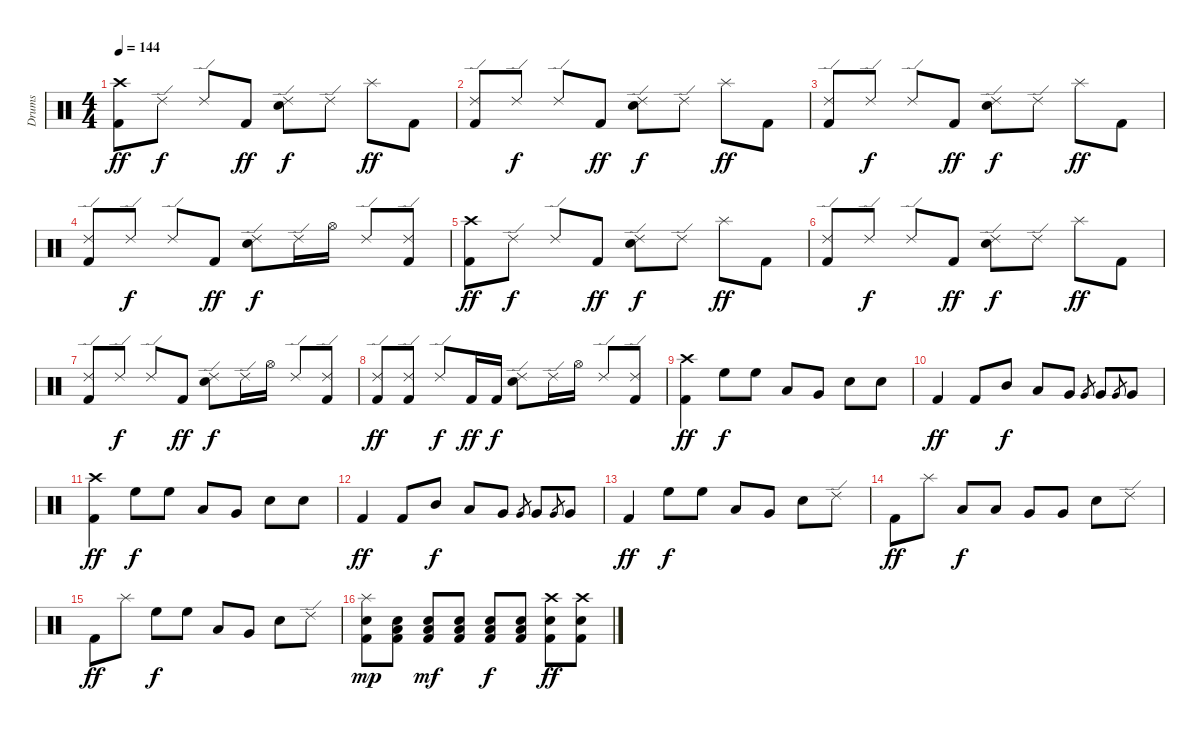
\track ("Drums" "Drums") {instrument percussion}
\staff {score}
\articulation defaults
\ts (4 4)
\tempo 144
\clef neutral
\ks c
("Crash high (hit)" "Kick (hit) 2").8{dy ff} "Ride (edge) 2".8{dy f} "Ride (edge) 2".8 "Kick (hit) 2".8{dy ff} ("Ride (edge) 2" "Snare (hit) 2").8{dy f} "Ride (edge) 2".8 "Splash (hit)".8{dy ff} "Kick (hit) 2".8 |
("Ride (edge) 2" "Kick (hit) 2").8 "Ride (edge) 2".8{dy f} "Ride (edge) 2".8 "Kick (hit) 2".8{dy ff} ("Ride (edge) 2" "Snare (hit) 2").8{dy f} "Ride (edge) 2".8 "Splash (hit)".8{dy ff} "Kick (hit) 2".8 |
("Ride (edge) 2" "Kick (hit) 2").8 "Ride (edge) 2".8{dy f} "Ride (edge) 2".8 "Kick (hit) 2".8{dy ff} ("Ride (edge) 2" "Snare (hit) 2").8{dy f} "Ride (edge) 2".8 "Splash (hit)".8{dy ff} "Kick (hit) 2".8 |
("Ride (edge) 2" "Kick (hit) 2").8 "Ride (edge) 2".8{dy f} "Ride (edge) 2".8 "Kick (hit) 2".8{dy ff} ("Ride (edge) 2" "Snare (hit) 2").8{dy f} "Ride (edge) 2".16 "Hi-Hat (open)".16 "Ride (edge) 2".8 ("Ride (edge) 2" "Kick (hit) 2").8 |
("Crash high (hit)" "Kick (hit) 2").8{dy ff} "Ride (edge) 2".8{dy f} "Ride (edge) 2".8 "Kick (hit) 2".8{dy ff} ("Ride (edge) 2" "Snare (hit) 2").8{dy f} "Ride (edge) 2".8 "Splash (hit)".8{dy ff} "Kick (hit) 2".8 |
("Ride (edge) 2" "Kick (hit) 2").8 "Ride (edge) 2".8{dy f} "Ride (edge) 2".8 "Kick (hit) 2".8{dy ff} ("Ride (edge) 2" "Snare (hit) 2").8{dy f} "Ride (edge) 2".8 "Splash (hit)".8{dy ff} "Kick (hit) 2".8 |
("Ride (edge) 2" "Kick (hit) 2").8 "Ride (edge) 2".8{dy f} "Ride (edge) 2".8 "Kick (hit) 2".8{dy ff} ("Ride (edge) 2" "Snare (hit) 2").8{dy f} "Ride (edge) 2".16 "Hi-Hat (open)".16 "Ride (edge) 2".8 ("Ride (edge) 2" "Kick (hit) 2").8 |
("Ride (edge) 2" "Kick (hit) 2").8{dy ff} ("Ride (edge) 2" "Kick (hit) 2").8 "Ride (edge) 2".8{dy f} "Kick (hit) 2".16{dy ff} "Kick (hit) 2".16{dy f} ("Ride (edge) 2" "Snare (hit) 2").8 "Ride (edge) 2".16 "Hi-Hat (open)".16 "Ride (edge) 2".8 ("Ride (edge) 2" "Kick (hit) 2").8 |
("Crash high (hit)" "Kick (hit) 2").4{dy ff} "High Floor Tom (hit)".8{dy f} "High Floor Tom (hit)".8 "Low Tom (hit)".8 "Very Low Tom (hit)".8 "Snare (hit) 2".8 "Snare (hit) 2".8 |
"Kick (hit) 2".4{dy ff} "Kick (hit) 2".8 "Mid Tom (hit)".8{dy f} "Low Tom (hit)".8 "Very Low Tom (hit)".8 "Very Low Tom (hit)".8{gr} "Very Low Tom (hit)".8 "Very Low Tom (hit)".8{gr} "Very Low Tom (hit)".8 |
("Crash high (hit)" "Kick (hit) 2").4{dy ff} "High Floor Tom (hit)".8{dy f} "High Floor Tom (hit)".8 "Low Tom (hit)".8 "Very Low Tom (hit)".8 "Snare (hit) 2".8 "Snare (hit) 2".8 |
"Kick (hit) 2".4{dy ff} "Kick (hit) 2".8 "Mid Tom (hit)".8{dy f} "Low Tom (hit)".8 "Very Low Tom (hit)".8 "Very Low Tom (hit)".8{gr} "Very Low Tom (hit)".8 "Very Low Tom (hit)".8{gr} "Very Low Tom (hit)".8 |
"Kick (hit) 2".4{dy ff} "High Floor Tom (hit)".8{dy f} "High Floor Tom (hit)".8 "Low Tom (hit)".8 "Very Low Tom (hit)".8 "Snare (hit) 2".8 "Ride (edge) 2".8 |
"Kick (hit) 2".8{dy ff} "Splash (hit)".8 "Low Tom (hit)".8{dy f} "Low Tom (hit)".8 "Very Low Tom (hit)".8 "Very Low Tom (hit)".8 "Snare (hit) 2".8 "Ride (edge) 2".8 |
"Kick (hit) 2".8{dy ff} "Splash (hit)".8 "High Floor Tom (hit)".8{dy f} "High Floor Tom (hit)".8 "Low Tom (hit)".8 "Very Low Tom (hit)".8 "Snare (hit) 2".8 "Ride (edge) 2".8 |
("Splash (hit)" "Snare (hit) 2" "Kick (hit) 2").8{dy mp} ("Snare (hit) 2" "Low Floor Tom (hit)" "Kick (hit) 2").8 ("Snare (hit) 2" "Low Floor Tom (hit)" "Kick (hit) 2").8{dy mf} ("Snare (hit) 2" "Low Floor Tom (hit)" "Kick (hit) 2").8 ("Snare (hit) 2" "Low Floor Tom (hit)" "Kick (hit) 2").8{dy f} ("Snare (hit) 2" "Low Floor Tom (hit)" "Kick (hit) 2").8 ("Crash high (hit)" "Snare (hit) 2" "Kick (hit) 2").8{dy ff} ("Crash high (hit)" "Snare (hit) 2" "Kick (hit) 2").8
